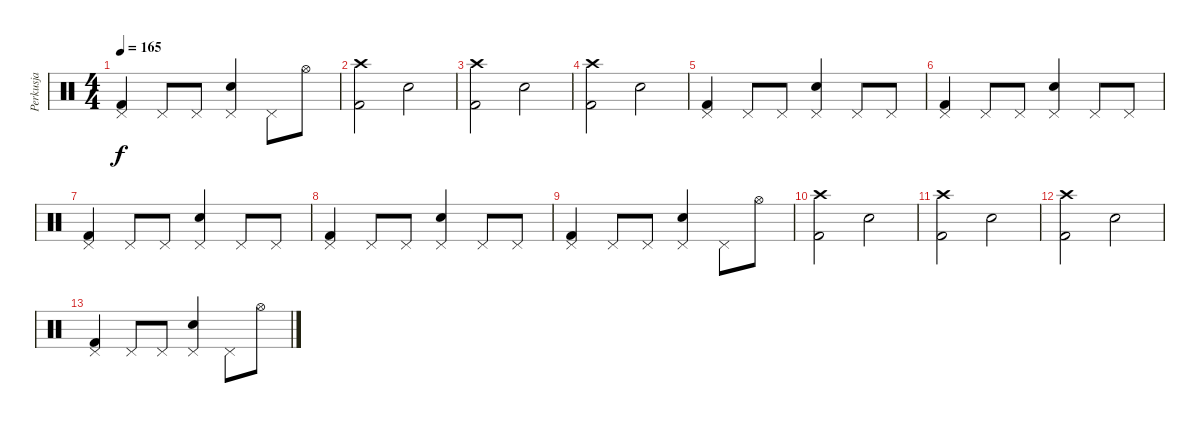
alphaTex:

\track ("Perkusja" "Perkusja") {instrument percussion}
\staff {score}
\articulation defaults
\ts (4 4)
\tempo 165
\clef neutral
\ks c
("Pedal Hi-Hat (hit)" "Kick (hit) 2").4{dy f} "Pedal Hi-Hat (hit)".8 "Pedal Hi-Hat (hit)".8 ("Pedal Hi-Hat (hit)" "Snare (hit) 2").4 "Pedal Hi-Hat (hit)".8 "Hi-Hat (open)".8 |
("Crash high (hit)" "Kick (hit) 2").2 "Snare (hit) 2".2 |
("Crash high (hit)" "Kick (hit) 2").2 "Snare (hit) 2".2 |
("Crash high (hit)" "Kick (hit) 2").2 "Snare (hit) 2".2 |
("Pedal Hi-Hat (hit)" "Kick (hit) 2").4 "Pedal Hi-Hat (hit)".8 "Pedal Hi-Hat (hit)".8 ("Pedal Hi-Hat (hit)" "Snare (hit) 2").4 "Pedal Hi-Hat (hit)".8 "Pedal Hi-Hat (hit)".8 |
("Pedal Hi-Hat (hit)" "Kick (hit) 2").4 "Pedal Hi-Hat (hit)".8 "Pedal Hi-Hat (hit)".8 ("Pedal Hi-Hat (hit)" "Snare (hit) 2").4 "Pedal Hi-Hat (hit)".8 "Pedal Hi-Hat (hit)".8 |
("Pedal Hi-Hat (hit)" "Kick (hit) 2").4 "Pedal Hi-Hat (hit)".8 "Pedal Hi-Hat (hit)".8 ("Pedal Hi-Hat (hit)" "Snare (hit) 2").4 "Pedal Hi-Hat (hit)".8 "Pedal Hi-Hat (hit)".8 |
("Pedal Hi-Hat (hit)" "Kick (hit) 2").4 "Pedal Hi-Hat (hit)".8 "Pedal Hi-Hat (hit)".8 ("Pedal Hi-Hat (hit)" "Snare (hit) 2").4 "Pedal Hi-Hat (hit)".8 "Pedal Hi-Hat (hit)".8 |
("Pedal Hi-Hat (hit)" "Kick (hit) 2").4 "Pedal Hi-Hat (hit)".8 "Pedal Hi-Hat (hit)".8 ("Pedal Hi-Hat (hit)" "Snare (hit) 2").4 "Pedal Hi-Hat (hit)".8 "Hi-Hat (open)".8 |
("Crash high (hit)" "Kick (hit) 2").2 "Snare (hit) 2".2 |
("Crash high (hit)" "Kick (hit) 2").2 "Snare (hit) 2".2 |
("Crash high (hit)" "Kick (hit) 2").2 "Snare (hit) 2".2 |
("Pedal Hi-Hat (hit)" "Kick (hit) 2").4 "Pedal Hi-Hat (hit)".8 "Pedal Hi-Hat (hit)".8 ("Pedal Hi-Hat (hit)" "Snare (hit) 2").4 "Pedal Hi-Hat (hit)".8 "Hi-Hat (open)".8
